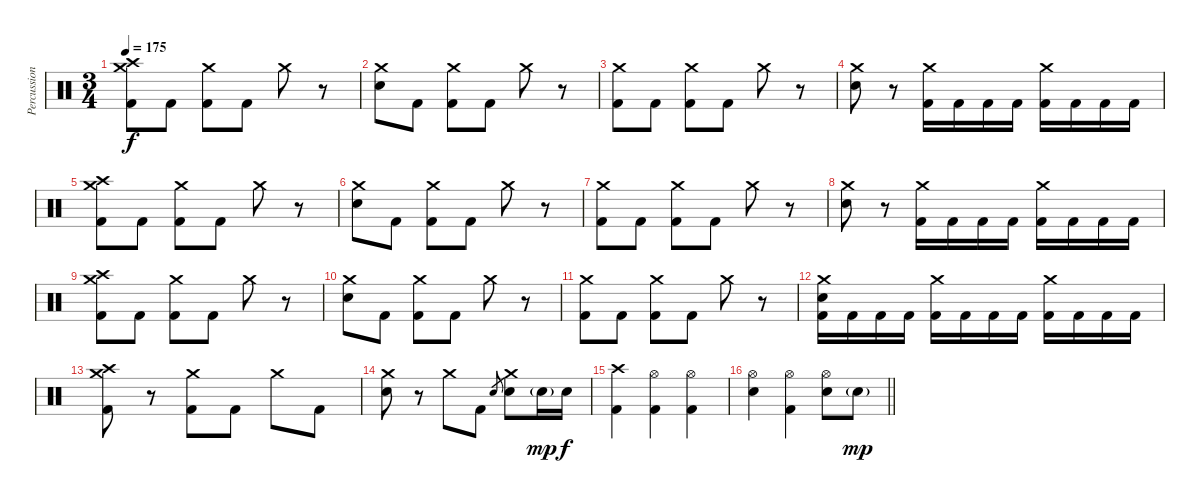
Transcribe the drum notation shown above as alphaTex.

\track ("Percussion" "Percussion") {instrument percussion}
\staff {score}
\articulation defaults
\ts (3 4)
\tempo 175
\clef neutral
\ks c
("Crash high (hit)" "Crash medium (hit)" "Kick (hit) 2").8{dy f} "Kick (hit) 2".8 ("Crash medium (hit)" "Kick (hit) 2").8 "Kick (hit) 2".8 "Crash medium (hit)".8 r.8 |
("Crash medium (hit)" "Electric Snare (hit)").8 "Kick (hit) 2".8 ("Crash medium (hit)" "Kick (hit) 2").8 "Kick (hit) 2".8 "Crash medium (hit)".8 r.8 |
("Crash medium (hit)" "Kick (hit) 2").8 "Kick (hit) 2".8 ("Crash medium (hit)" "Kick (hit) 2").8 "Kick (hit) 2".8 "Crash medium (hit)".8 r.8 |
("Crash medium (hit)" "Electric Snare (hit)").8 r.8 ("Crash medium (hit)" "Kick (hit) 2").16 "Kick (hit) 2".16 "Kick (hit) 2".16 "Kick (hit) 2".16 ("Crash medium (hit)" "Kick (hit) 2").16 "Kick (hit) 2".16 "Kick (hit) 2".16 "Kick (hit) 2".16 |
("Crash high (hit)" "Crash medium (hit)" "Kick (hit) 2").8 "Kick (hit) 2".8 ("Crash medium (hit)" "Kick (hit) 2").8 "Kick (hit) 2".8 "Crash medium (hit)".8 r.8 |
("Crash medium (hit)" "Electric Snare (hit)").8 "Kick (hit) 2".8 ("Crash medium (hit)" "Kick (hit) 2").8 "Kick (hit) 2".8 "Crash medium (hit)".8 r.8 |
("Crash medium (hit)" "Kick (hit) 2").8 "Kick (hit) 2".8 ("Crash medium (hit)" "Kick (hit) 2").8 "Kick (hit) 2".8 "Crash medium (hit)".8 r.8 |
("Crash medium (hit)" "Electric Snare (hit)").8 r.8 ("Crash medium (hit)" "Kick (hit) 2").16 "Kick (hit) 2".16 "Kick (hit) 2".16 "Kick (hit) 2".16 ("Crash medium (hit)" "Kick (hit) 2").16 "Kick (hit) 2".16 "Kick (hit) 2".16 "Kick (hit) 2".16 |
("Crash high (hit)" "Crash medium (hit)" "Kick (hit) 2").8 "Kick (hit) 2".8 ("Crash medium (hit)" "Kick (hit) 2").8 "Kick (hit) 2".8 "Crash medium (hit)".8 r.8 |
("Crash medium (hit)" "Electric Snare (hit)").8 "Kick (hit) 2".8 ("Crash medium (hit)" "Kick (hit) 2").8 "Kick (hit) 2".8 "Crash medium (hit)".8 r.8 |
("Crash medium (hit)" "Kick (hit) 2").8 "Kick (hit) 2".8 ("Crash medium (hit)" "Kick (hit) 2").8 "Kick (hit) 2".8 "Crash medium (hit)".8 r.8 |
("Crash medium (hit)" "Electric Snare (hit)" "Kick (hit) 2").16 "Kick (hit) 2".16 "Kick (hit) 2".16 "Kick (hit) 2".16 ("Crash medium (hit)" "Kick (hit) 2").16 "Kick (hit) 2".16 "Kick (hit) 2".16 "Kick (hit) 2".16 ("Crash medium (hit)" "Kick (hit) 2").16 "Kick (hit) 2".16 "Kick (hit) 2".16 "Kick (hit) 2".16 |
("Crash high (hit)" "Crash medium (hit)" "Kick (hit) 2").8 r.8 ("Crash medium (hit)" "Kick (hit) 2").8 "Kick (hit) 2".8 "Crash medium (hit)".8 "Kick (hit) 2".8 |
("Crash medium (hit)" "Electric Snare (hit)").8 r.8 "Crash medium (hit)".8 "Kick (hit) 2".8 "Electric Snare (hit)".8{gr} ("Crash medium (hit)" "Electric Snare (hit)").8 "Electric Snare (hit)"{g}.16{dy mp} "Electric Snare (hit)".16{dy f} |
("Crash high (hit)" "Kick (hit) 2").4 ("Hi-Hat (open)" "Kick (hit) 2").4 ("Hi-Hat (open)" "Kick (hit) 2").4 |
\barLineRight lightlight
("Hi-Hat (open)" "Electric Snare (hit)").4 ("Hi-Hat (open)" "Kick (hit) 2").4 ("Hi-Hat (open)" "Electric Snare (hit)").8 "Electric Snare (hit)"{g}.8{dy mp}
